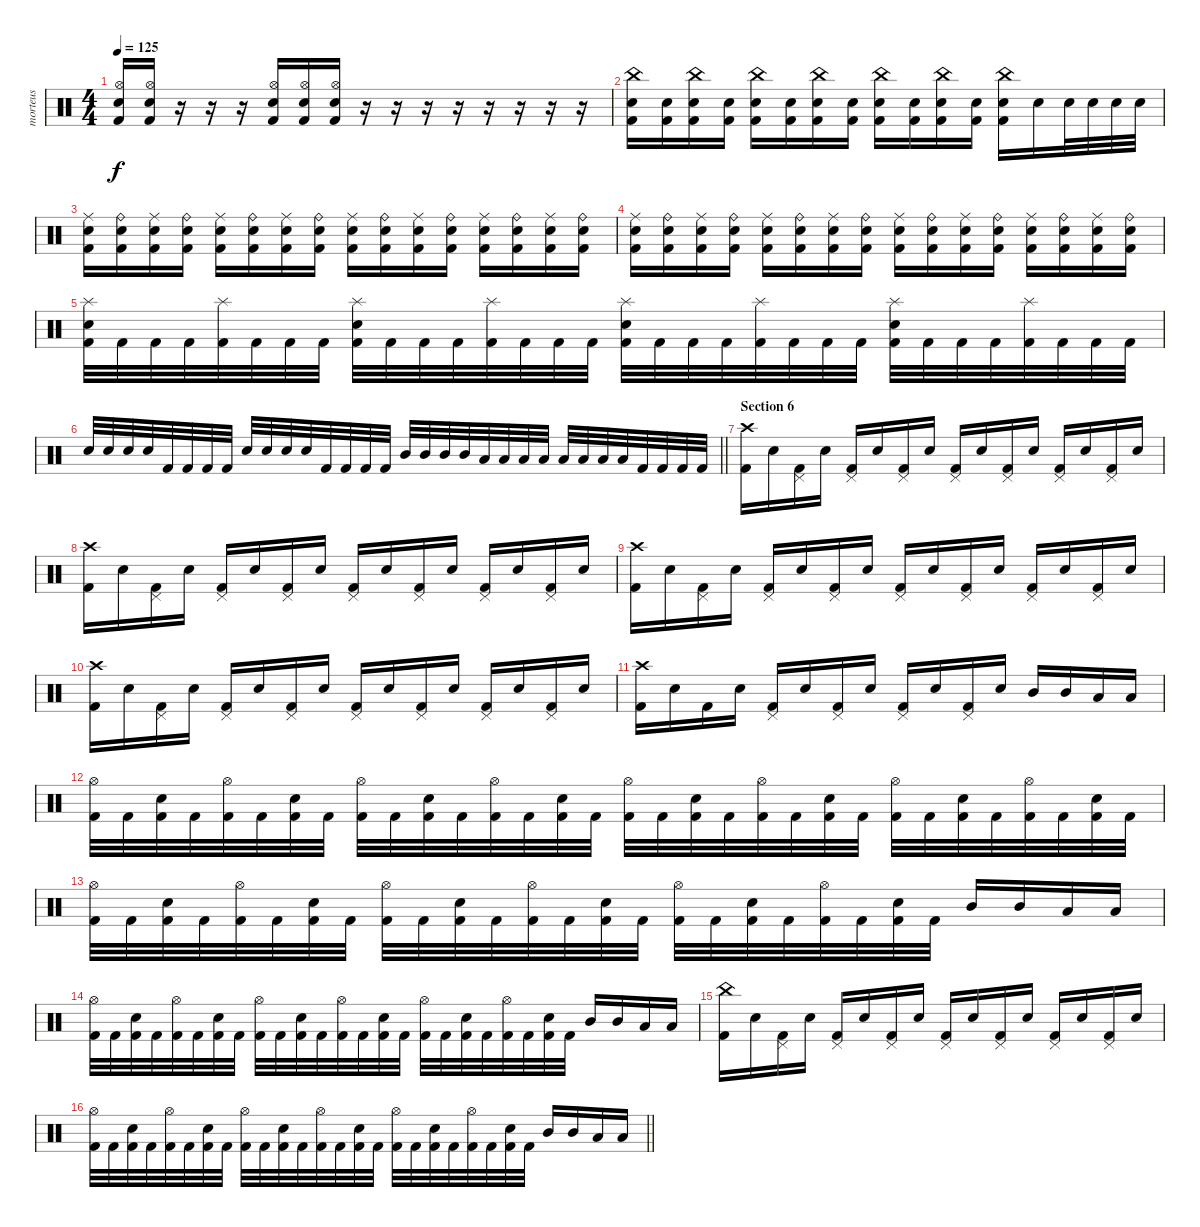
\track ("morteus" "morteus") {instrument percussion}
\staff {score}
\articulation defaults
\ts (4 4)
\tempo 125
\clef neutral
\ks c
("Kick (hit) 2" "Hi-Hat (open)" "Electric Snare (hit)").16{dy f} ("Kick (hit) 2" "Hi-Hat (open)" "Electric Snare (hit)").16 r.16 r.16 r.16 ("Kick (hit) 2" "Hi-Hat (open)" "Electric Snare (hit)").16 ("Kick (hit) 2" "Hi-Hat (open)" "Electric Snare (hit)").16 ("Kick (hit) 2" "Hi-Hat (open)" "Electric Snare (hit)").16 r.16 r.16 r.16 r.16 r.16 r.16 r.16 r.16 |
("Kick (hit) 2" "Electric Snare (hit)" "China (hit)").16 ("Kick (hit) 2" "Electric Snare (hit)").16 ("Kick (hit) 2" "Electric Snare (hit)" "China (hit)").16 ("Kick (hit) 2" "Electric Snare (hit)").16 ("Kick (hit) 2" "Electric Snare (hit)" "China (hit)").16 ("Kick (hit) 2" "Electric Snare (hit)").16 ("Kick (hit) 2" "Electric Snare (hit)" "China (hit)").16 ("Kick (hit) 2" "Electric Snare (hit)").16 ("Kick (hit) 2" "Electric Snare (hit)" "China (hit)").16 ("Kick (hit) 2" "Electric Snare (hit)").16 ("Kick (hit) 2" "Electric Snare (hit)" "China (hit)").16 ("Kick (hit) 2" "Electric Snare (hit)").16 ("Kick (hit) 2" "Electric Snare (hit)" "China (hit)").16 "Electric Snare (hit)".16 "Electric Snare (hit)".32 "Electric Snare (hit)".32 "Electric Snare (hit)".32 "Electric Snare (hit)".32 |
("Kick (hit) 2" "Electric Snare (hit)" "Ride (middle)").16 ("Kick (hit) 2" "Electric Snare (hit)" "Ride (bell)").16 ("Kick (hit) 2" "Electric Snare (hit)" "Ride (middle)").16 ("Kick (hit) 2" "Electric Snare (hit)" "Ride (bell)").16 ("Kick (hit) 2" "Electric Snare (hit)" "Ride (middle)").16 ("Kick (hit) 2" "Electric Snare (hit)" "Ride (bell)").16 ("Kick (hit) 2" "Electric Snare (hit)" "Ride (middle)").16 ("Kick (hit) 2" "Electric Snare (hit)" "Ride (bell)").16 ("Kick (hit) 2" "Electric Snare (hit)" "Ride (middle)").16 ("Kick (hit) 2" "Electric Snare (hit)" "Ride (bell)").16 ("Kick (hit) 2" "Electric Snare (hit)" "Ride (middle)").16 ("Kick (hit) 2" "Electric Snare (hit)" "Ride (bell)").16 ("Kick (hit) 2" "Electric Snare (hit)" "Ride (middle)").16 ("Kick (hit) 2" "Electric Snare (hit)" "Ride (bell)").16 ("Kick (hit) 2" "Electric Snare (hit)" "Ride (middle)").16 ("Kick (hit) 2" "Electric Snare (hit)" "Ride (bell)").16 |
("Kick (hit) 2" "Electric Snare (hit)" "Ride (middle)").16 ("Kick (hit) 2" "Electric Snare (hit)" "Ride (bell)").16 ("Kick (hit) 2" "Electric Snare (hit)" "Ride (middle)").16 ("Kick (hit) 2" "Electric Snare (hit)" "Ride (bell)").16 ("Kick (hit) 2" "Electric Snare (hit)" "Ride (middle)").16 ("Kick (hit) 2" "Electric Snare (hit)" "Ride (bell)").16 ("Kick (hit) 2" "Electric Snare (hit)" "Ride (middle)").16 ("Kick (hit) 2" "Electric Snare (hit)" "Ride (bell)").16 ("Kick (hit) 2" "Electric Snare (hit)" "Ride (middle)").16 ("Kick (hit) 2" "Electric Snare (hit)" "Ride (bell)").16 ("Kick (hit) 2" "Electric Snare (hit)" "Ride (middle)").16 ("Kick (hit) 2" "Electric Snare (hit)" "Ride (bell)").16 ("Kick (hit) 2" "Electric Snare (hit)" "Ride (middle)").16 ("Kick (hit) 2" "Electric Snare (hit)" "Ride (bell)").16 ("Kick (hit) 2" "Electric Snare (hit)" "Ride (middle)").16 ("Kick (hit) 2" "Electric Snare (hit)" "Ride (bell)").16 |
("Kick (hit) 2" "Electric Snare (hit)" "Splash (hit)").32 "Kick (hit) 2".32 "Kick (hit) 2".32 "Kick (hit) 2".32 ("Kick (hit) 2" "Splash (hit)").32 "Kick (hit) 2".32 "Kick (hit) 2".32 "Kick (hit) 2".32 ("Kick (hit) 2" "Electric Snare (hit)" "Splash (hit)").32 "Kick (hit) 2".32 "Kick (hit) 2".32 "Kick (hit) 2".32 ("Kick (hit) 2" "Splash (hit)").32 "Kick (hit) 2".32 "Kick (hit) 2".32 "Kick (hit) 2".32 ("Kick (hit) 2" "Electric Snare (hit)" "Splash (hit)").32 "Kick (hit) 2".32 "Kick (hit) 2".32 "Kick (hit) 2".32 ("Kick (hit) 2" "Splash (hit)").32 "Kick (hit) 2".32 "Kick (hit) 2".32 "Kick (hit) 2".32 ("Kick (hit) 2" "Electric Snare (hit)" "Splash (hit)").32 "Kick (hit) 2".32 "Kick (hit) 2".32 "Kick (hit) 2".32 ("Kick (hit) 2" "Splash (hit)").32 "Kick (hit) 2".32 "Kick (hit) 2".32 "Kick (hit) 2".32 |
\barLineRight lightlight "Electric Snare (hit)".32 "Electric Snare (hit)".32 "Electric Snare (hit)".32 "Electric Snare (hit)".32 "Kick (hit) 2".32 "Kick (hit) 2".32 "Kick (hit) 2".32 "Kick (hit) 2".32 "Electric Snare (hit)".32 "Electric Snare (hit)".32 "Electric Snare (hit)".32 "Electric Snare (hit)".32 "Kick (hit) 2".32 "Kick (hit) 2".32 "Kick (hit) 2".32 "Kick (hit) 2".32 "Mid Tom (hit)".32 "Mid Tom (hit)".32 "Mid Tom (hit)".32 "Mid Tom (hit)".32 "Low Tom (hit)".32 "Low Tom (hit)".32 "Low Tom (hit)".32 "Low Tom (hit)".32 "Low Floor Tom (hit)".32 "Low Floor Tom (hit)".32 "Low Floor Tom (hit)".32 "Low Floor Tom (hit)".32 "Kick (hit) 2".32 "Kick (hit) 2".32 "Kick (hit) 2".32 "Kick (hit) 2".32
|
\section ("" "Section 6")
("Kick (hit) 2" "Crash high (hit)").16 "Electric Snare (hit)".16 ("Kick (hit) 2" "Pedal Hi-Hat (hit)").16 "Electric Snare (hit)".16 ("Kick (hit) 2" "Pedal Hi-Hat (hit)").16 "Electric Snare (hit)".16 ("Kick (hit) 2" "Pedal Hi-Hat (hit)").16 "Electric Snare (hit)".16 ("Kick (hit) 2" "Pedal Hi-Hat (hit)").16 "Electric Snare (hit)".16 ("Kick (hit) 2" "Pedal Hi-Hat (hit)").16 "Electric Snare (hit)".16 ("Kick (hit) 2" "Pedal Hi-Hat (hit)").16 "Electric Snare (hit)".16 ("Kick (hit) 2" "Pedal Hi-Hat (hit)").16 "Electric Snare (hit)".16 |
("Kick (hit) 2" "Crash high (hit)").16 "Electric Snare (hit)".16 ("Kick (hit) 2" "Pedal Hi-Hat (hit)").16 "Electric Snare (hit)".16 ("Kick (hit) 2" "Pedal Hi-Hat (hit)").16 "Electric Snare (hit)".16 ("Kick (hit) 2" "Pedal Hi-Hat (hit)").16 "Electric Snare (hit)".16 ("Kick (hit) 2" "Pedal Hi-Hat (hit)").16 "Electric Snare (hit)".16 ("Kick (hit) 2" "Pedal Hi-Hat (hit)").16 "Electric Snare (hit)".16 ("Kick (hit) 2" "Pedal Hi-Hat (hit)").16 "Electric Snare (hit)".16 ("Kick (hit) 2" "Pedal Hi-Hat (hit)").16 "Electric Snare (hit)".16 |
("Kick (hit) 2" "Crash high (hit)").16 "Electric Snare (hit)".16 ("Kick (hit) 2" "Pedal Hi-Hat (hit)").16 "Electric Snare (hit)".16 ("Kick (hit) 2" "Pedal Hi-Hat (hit)").16 "Electric Snare (hit)".16 ("Kick (hit) 2" "Pedal Hi-Hat (hit)").16 "Electric Snare (hit)".16 ("Kick (hit) 2" "Pedal Hi-Hat (hit)").16 "Electric Snare (hit)".16 ("Kick (hit) 2" "Pedal Hi-Hat (hit)").16 "Electric Snare (hit)".16 ("Kick (hit) 2" "Pedal Hi-Hat (hit)").16 "Electric Snare (hit)".16 ("Kick (hit) 2" "Pedal Hi-Hat (hit)").16 "Electric Snare (hit)".16 |
("Kick (hit) 2" "Crash high (hit)").16 "Electric Snare (hit)".16 ("Kick (hit) 2" "Pedal Hi-Hat (hit)").16 "Electric Snare (hit)".16 ("Kick (hit) 2" "Pedal Hi-Hat (hit)").16 "Electric Snare (hit)".16 ("Kick (hit) 2" "Pedal Hi-Hat (hit)").16 "Electric Snare (hit)".16 ("Kick (hit) 2" "Pedal Hi-Hat (hit)").16 "Electric Snare (hit)".16 ("Kick (hit) 2" "Pedal Hi-Hat (hit)").16 "Electric Snare (hit)".16 ("Kick (hit) 2" "Pedal Hi-Hat (hit)").16 "Electric Snare (hit)".16 ("Kick (hit) 2" "Pedal Hi-Hat (hit)").16 "Electric Snare (hit)".16 |
("Kick (hit) 2" "Crash high (hit)").16 "Electric Snare (hit)".16 "Kick (hit) 2".16 "Electric Snare (hit)".16 ("Kick (hit) 2" "Pedal Hi-Hat (hit)").16 "Electric Snare (hit)".16 ("Kick (hit) 2" "Pedal Hi-Hat (hit)").16 "Electric Snare (hit)".16 ("Kick (hit) 2" "Pedal Hi-Hat (hit)").16 "Electric Snare (hit)".16 ("Kick (hit) 2" "Pedal Hi-Hat (hit)").16 "Electric Snare (hit)".16 "Mid Tom (hit)".16 "Mid Tom (hit)".16 "Low Tom (hit)".16 "Low Tom (hit)".16 |
("Kick (hit) 2" "Hi-Hat (open)").32 "Kick (hit) 2".32 ("Kick (hit) 2" "Electric Snare (hit)").32 "Kick (hit) 2".32 ("Kick (hit) 2" "Hi-Hat (open)").32 "Kick (hit) 2".32 ("Kick (hit) 2" "Electric Snare (hit)").32 "Kick (hit) 2".32 ("Kick (hit) 2" "Hi-Hat (open)").32 "Kick (hit) 2".32 ("Kick (hit) 2" "Electric Snare (hit)").32 "Kick (hit) 2".32 ("Kick (hit) 2" "Hi-Hat (open)").32 "Kick (hit) 2".32 ("Kick (hit) 2" "Electric Snare (hit)").32 "Kick (hit) 2".32 ("Kick (hit) 2" "Hi-Hat (open)").32 "Kick (hit) 2".32 ("Kick (hit) 2" "Electric Snare (hit)").32 "Kick (hit) 2".32 ("Kick (hit) 2" "Hi-Hat (open)").32 "Kick (hit) 2".32 ("Kick (hit) 2" "Electric Snare (hit)").32 "Kick (hit) 2".32 ("Kick (hit) 2" "Hi-Hat (open)").32 "Kick (hit) 2".32 ("Kick (hit) 2" "Electric Snare (hit)").32 "Kick (hit) 2".32 ("Kick (hit) 2" "Hi-Hat (open)").32 "Kick (hit) 2".32 ("Kick (hit) 2" "Electric Snare (hit)").32 "Kick (hit) 2".32 |
("Kick (hit) 2" "Hi-Hat (open)").32 "Kick (hit) 2".32 ("Kick (hit) 2" "Electric Snare (hit)").32 "Kick (hit) 2".32 ("Kick (hit) 2" "Hi-Hat (open)").32 "Kick (hit) 2".32 ("Kick (hit) 2" "Electric Snare (hit)").32 "Kick (hit) 2".32 ("Kick (hit) 2" "Hi-Hat (open)").32 "Kick (hit) 2".32 ("Kick (hit) 2" "Electric Snare (hit)").32 "Kick (hit) 2".32 ("Kick (hit) 2" "Hi-Hat (open)").32 "Kick (hit) 2".32 ("Kick (hit) 2" "Electric Snare (hit)").32 "Kick (hit) 2".32 ("Kick (hit) 2" "Hi-Hat (open)").32 "Kick (hit) 2".32 ("Kick (hit) 2" "Electric Snare (hit)").32 "Kick (hit) 2".32 ("Kick (hit) 2" "Hi-Hat (open)").32 "Kick (hit) 2".32 ("Kick (hit) 2" "Electric Snare (hit)").32 "Kick (hit) 2".32 "Mid Tom (hit)".16 "Mid Tom (hit)".16 "Low Tom (hit)".16 "Low Tom (hit)".16 |
("Kick (hit) 2" "Hi-Hat (open)").32 "Kick (hit) 2".32 ("Kick (hit) 2" "Electric Snare (hit)").32 "Kick (hit) 2".32 ("Kick (hit) 2" "Hi-Hat (open)").32 "Kick (hit) 2".32 ("Kick (hit) 2" "Electric Snare (hit)").32 "Kick (hit) 2".32 ("Kick (hit) 2" "Hi-Hat (open)").32 "Kick (hit) 2".32 ("Kick (hit) 2" "Electric Snare (hit)").32 "Kick (hit) 2".32 ("Kick (hit) 2" "Hi-Hat (open)").32 "Kick (hit) 2".32 ("Kick (hit) 2" "Electric Snare (hit)").32 "Kick (hit) 2".32 ("Kick (hit) 2" "Hi-Hat (open)").32 "Kick (hit) 2".32 ("Kick (hit) 2" "Electric Snare (hit)").32 "Kick (hit) 2".32 ("Kick (hit) 2" "Hi-Hat (open)").32 "Kick (hit) 2".32 ("Kick (hit) 2" "Electric Snare (hit)").32 "Kick (hit) 2".32 "Mid Tom (hit)".16 "Mid Tom (hit)".16 "Low Tom (hit)".16 "Low Tom (hit)".16 |
("Kick (hit) 2" "China (hit)").16 "Electric Snare (hit)".16 ("Kick (hit) 2" "Pedal Hi-Hat (hit)").16 "Electric Snare (hit)".16 ("Kick (hit) 2" "Pedal Hi-Hat (hit)").16 "Electric Snare (hit)".16 ("Kick (hit) 2" "Pedal Hi-Hat (hit)").16 "Electric Snare (hit)".16 ("Kick (hit) 2" "Pedal Hi-Hat (hit)").16 "Electric Snare (hit)".16 ("Kick (hit) 2" "Pedal Hi-Hat (hit)").16 "Electric Snare (hit)".16 ("Kick (hit) 2" "Pedal Hi-Hat (hit)").16 "Electric Snare (hit)".16 ("Kick (hit) 2" "Pedal Hi-Hat (hit)").16 "Electric Snare (hit)".16 |
\barLineRight lightlight
("Kick (hit) 2" "Hi-Hat (open)").32 "Kick (hit) 2".32 ("Kick (hit) 2" "Electric Snare (hit)").32 "Kick (hit) 2".32 ("Kick (hit) 2" "Hi-Hat (open)").32 "Kick (hit) 2".32 ("Kick (hit) 2" "Electric Snare (hit)").32 "Kick (hit) 2".32 ("Kick (hit) 2" "Hi-Hat (open)").32 "Kick (hit) 2".32 ("Kick (hit) 2" "Electric Snare (hit)").32 "Kick (hit) 2".32 ("Kick (hit) 2" "Hi-Hat (open)").32 "Kick (hit) 2".32 ("Kick (hit) 2" "Electric Snare (hit)").32 "Kick (hit) 2".32 ("Kick (hit) 2" "Hi-Hat (open)").32 "Kick (hit) 2".32 ("Kick (hit) 2" "Electric Snare (hit)").32 "Kick (hit) 2".32 ("Kick (hit) 2" "Hi-Hat (open)").32 "Kick (hit) 2".32 ("Kick (hit) 2" "Electric Snare (hit)").32 "Kick (hit) 2".32 "Mid Tom (hit)".16 "Mid Tom (hit)".16 "Low Tom (hit)".16 "Low Tom (hit)".16
